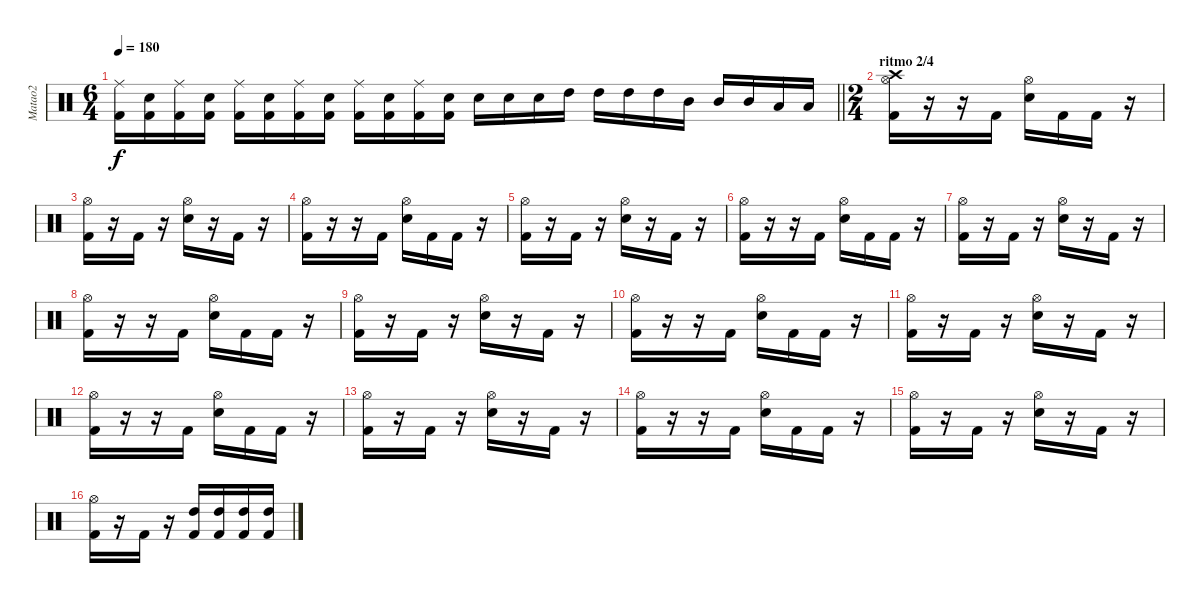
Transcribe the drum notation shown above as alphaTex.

\track ("Matao2" "Matao2") {instrument percussion}
\staff {score}
\articulation defaults
\ts (6 4)
\tempo 180
\clef neutral
\barLineRight lightlight
\ks c
("Kick (hit) 2" "Ride (middle)").16{dy f} ("Kick (hit) 2" "Electric Snare (hit)").16 ("Kick (hit) 2" "Ride (middle)").16 ("Kick (hit) 2" "Electric Snare (hit)").16 ("Kick (hit) 2" "Ride (middle)").16 ("Kick (hit) 2" "Electric Snare (hit)").16 ("Kick (hit) 2" "Ride (middle)").16 ("Kick (hit) 2" "Electric Snare (hit)").16 ("Kick (hit) 2" "Ride (middle)").16 ("Kick (hit) 2" "Electric Snare (hit)").16 ("Kick (hit) 2" "Ride (middle)").16 ("Kick (hit) 2" "Electric Snare (hit)").16 "Electric Snare (hit)".16 "Electric Snare (hit)".16 "Electric Snare (hit)".16 "High Tom (hit)".16 "High Tom (hit)".16 "High Tom (hit)".16 "High Tom (hit)".16 "Mid Tom (hit)".16 "Mid Tom (hit)".16 "Mid Tom (hit)".16 "Low Tom (hit)".16 "Low Tom (hit)".16 |
\ts (2 4)
\section ("" "ritmo 2/4")
("Kick (hit) 2" "Hi-Hat (open)" "Crash high (hit)").16 r.16 r.16 "Kick (hit) 2".16 ("Electric Snare (hit)" "Hi-Hat (open)").16 "Kick (hit) 2".16 "Kick (hit) 2".16 r.16 |
("Kick (hit) 2" "Hi-Hat (open)").16 r.16 "Kick (hit) 2".16 r.16 ("Electric Snare (hit)" "Hi-Hat (open)").16 r.16 "Kick (hit) 2".16 r.16 |
("Kick (hit) 2" "Hi-Hat (open)").16 r.16 r.16 "Kick (hit) 2".16 ("Electric Snare (hit)" "Hi-Hat (open)").16 "Kick (hit) 2".16 "Kick (hit) 2".16 r.16 |
("Kick (hit) 2" "Hi-Hat (open)").16 r.16 "Kick (hit) 2".16 r.16 ("Electric Snare (hit)" "Hi-Hat (open)").16 r.16 "Kick (hit) 2".16 r.16 |
("Kick (hit) 2" "Hi-Hat (open)").16 r.16 r.16 "Kick (hit) 2".16 ("Electric Snare (hit)" "Hi-Hat (open)").16 "Kick (hit) 2".16 "Kick (hit) 2".16 r.16 |
("Kick (hit) 2" "Hi-Hat (open)").16 r.16 "Kick (hit) 2".16 r.16 ("Electric Snare (hit)" "Hi-Hat (open)").16 r.16 "Kick (hit) 2".16 r.16 |
("Kick (hit) 2" "Hi-Hat (open)").16 r.16 r.16 "Kick (hit) 2".16 ("Electric Snare (hit)" "Hi-Hat (open)").16 "Kick (hit) 2".16 "Kick (hit) 2".16 r.16 |
("Kick (hit) 2" "Hi-Hat (open)").16 r.16 "Kick (hit) 2".16 r.16 ("Electric Snare (hit)" "Hi-Hat (open)").16 r.16 "Kick (hit) 2".16 r.16 |
("Kick (hit) 2" "Hi-Hat (open)").16 r.16 r.16 "Kick (hit) 2".16 ("Electric Snare (hit)" "Hi-Hat (open)").16 "Kick (hit) 2".16 "Kick (hit) 2".16 r.16 |
("Kick (hit) 2" "Hi-Hat (open)").16 r.16 "Kick (hit) 2".16 r.16 ("Electric Snare (hit)" "Hi-Hat (open)").16 r.16 "Kick (hit) 2".16 r.16 |
("Kick (hit) 2" "Hi-Hat (open)").16 r.16 r.16 "Kick (hit) 2".16 ("Electric Snare (hit)" "Hi-Hat (open)").16 "Kick (hit) 2".16 "Kick (hit) 2".16 r.16 |
("Kick (hit) 2" "Hi-Hat (open)").16 r.16 "Kick (hit) 2".16 r.16 ("Electric Snare (hit)" "Hi-Hat (open)").16 r.16 "Kick (hit) 2".16 r.16 |
("Kick (hit) 2" "Hi-Hat (open)").16 r.16 r.16 "Kick (hit) 2".16 ("Electric Snare (hit)" "Hi-Hat (open)").16 "Kick (hit) 2".16 "Kick (hit) 2".16 r.16 |
("Kick (hit) 2" "Hi-Hat (open)").16 r.16 "Kick (hit) 2".16 r.16 ("Electric Snare (hit)" "Hi-Hat (open)").16 r.16 "Kick (hit) 2".16 r.16 |
("Kick (hit) 2" "Hi-Hat (open)").16 r.16 "Kick (hit) 2".16 r.16 ("Kick (hit) 2" "High Tom (hit)").16 ("Kick (hit) 2" "High Tom (hit)").16 ("Kick (hit) 2" "High Tom (hit)").16 ("Kick (hit) 2" "High Tom (hit)").16
